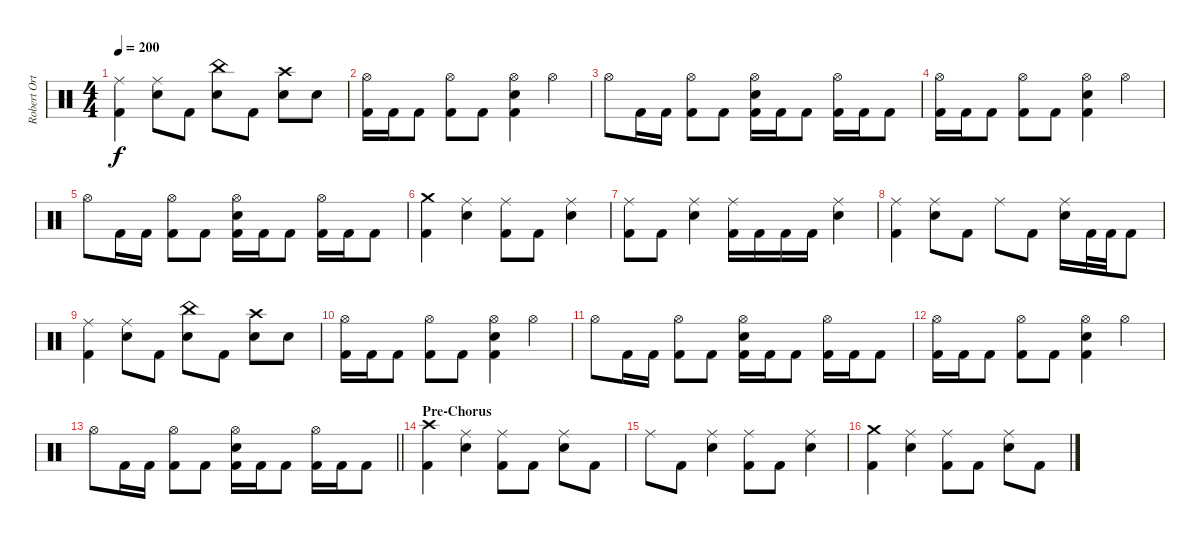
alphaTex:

\track ("Robert Ortiz - Drums" "Robert Ort") {instrument percussion}
\staff {score}
\articulation defaults
\ts (4 4)
\tempo 200
\clef neutral
\ks c
("Ride (middle)" "Kick (hit) 2").4{dy f} ("Ride (middle)" "Electric Snare (hit)").8 "Kick (hit) 2".8 ("China (hit)" "Electric Snare (hit)").8 "Kick (hit) 2".8 ("Crash high (hit)" "Electric Snare (hit)").8 "Electric Snare (hit)".8 |
("Hi-Hat (open)" "Kick (hit) 2").16 "Kick (hit) 2".16 "Kick (hit) 2".8 ("Hi-Hat (open)" "Kick (hit) 2").8 "Kick (hit) 2".8 ("Hi-Hat (open)" "Electric Snare (hit)" "Kick (hit) 2").4 "Hi-Hat (open)".4 |
"Hi-Hat (open)".8 "Kick (hit) 2".16 "Kick (hit) 2".16 ("Hi-Hat (open)" "Kick (hit) 2").8 "Kick (hit) 2".8 ("Hi-Hat (open)" "Electric Snare (hit)" "Kick (hit) 2").16 "Kick (hit) 2".16 "Kick (hit) 2".8 ("Hi-Hat (open)" "Kick (hit) 2").16 "Kick (hit) 2".16 "Kick (hit) 2".8 |
("Hi-Hat (open)" "Kick (hit) 2").16 "Kick (hit) 2".16 "Kick (hit) 2".8 ("Hi-Hat (open)" "Kick (hit) 2").8 "Kick (hit) 2".8 ("Hi-Hat (open)" "Electric Snare (hit)" "Kick (hit) 2").4 "Hi-Hat (open)".4 |
"Hi-Hat (open)".8 "Kick (hit) 2".16 "Kick (hit) 2".16 ("Hi-Hat (open)" "Kick (hit) 2").8 "Kick (hit) 2".8 ("Hi-Hat (open)" "Electric Snare (hit)" "Kick (hit) 2").16 "Kick (hit) 2".16 "Kick (hit) 2".8 ("Hi-Hat (open)" "Kick (hit) 2").16 "Kick (hit) 2".16 "Kick (hit) 2".8 |
("Crash medium (hit)" "Kick (hit) 2").4 ("Ride (middle)" "Electric Snare (hit)").4 ("Ride (middle)" "Kick (hit) 2").8 "Kick (hit) 2".8 ("Ride (middle)" "Electric Snare (hit)").4 |
("Ride (middle)" "Kick (hit) 2").8 "Kick (hit) 2".8 ("Ride (middle)" "Electric Snare (hit)").4 ("Ride (middle)" "Kick (hit) 2").16 "Kick (hit) 2".16 "Kick (hit) 2".16 "Kick (hit) 2".16 ("Ride (middle)" "Electric Snare (hit)").4 |
("Ride (middle)" "Kick (hit) 2").4 ("Ride (middle)" "Electric Snare (hit)").8 "Kick (hit) 2".8 "Ride (middle)".8 "Kick (hit) 2".8 ("Ride (middle)" "Electric Snare (hit)").16 "Kick (hit) 2".32 "Kick (hit) 2".32 "Kick (hit) 2".8 |
("Ride (middle)" "Kick (hit) 2").4 ("Ride (middle)" "Electric Snare (hit)").8 "Kick (hit) 2".8 ("China (hit)" "Electric Snare (hit)").8 "Kick (hit) 2".8 ("Crash high (hit)" "Electric Snare (hit)").8 "Electric Snare (hit)".8 |
("Hi-Hat (open)" "Kick (hit) 2").16 "Kick (hit) 2".16 "Kick (hit) 2".8 ("Hi-Hat (open)" "Kick (hit) 2").8 "Kick (hit) 2".8 ("Hi-Hat (open)" "Electric Snare (hit)" "Kick (hit) 2").4 "Hi-Hat (open)".4 |
"Hi-Hat (open)".8 "Kick (hit) 2".16 "Kick (hit) 2".16 ("Hi-Hat (open)" "Kick (hit) 2").8 "Kick (hit) 2".8 ("Hi-Hat (open)" "Electric Snare (hit)" "Kick (hit) 2").16 "Kick (hit) 2".16 "Kick (hit) 2".8 ("Hi-Hat (open)" "Kick (hit) 2").16 "Kick (hit) 2".16 "Kick (hit) 2".8 |
("Hi-Hat (open)" "Kick (hit) 2").16 "Kick (hit) 2".16 "Kick (hit) 2".8 ("Hi-Hat (open)" "Kick (hit) 2").8 "Kick (hit) 2".8 ("Hi-Hat (open)" "Electric Snare (hit)" "Kick (hit) 2").4 "Hi-Hat (open)".4 |
\barLineRight lightlight "Hi-Hat (open)".8 "Kick (hit) 2".16 "Kick (hit) 2".16
("Hi-Hat (open)" "Kick (hit) 2").8 "Kick (hit) 2".8 ("Hi-Hat (open)" "Electric Snare (hit)" "Kick (hit) 2").16 "Kick (hit) 2".16 "Kick (hit) 2".8 ("Hi-Hat (open)" "Kick (hit) 2").16 "Kick (hit) 2".16 "Kick (hit) 2".8 |
\section ("" "Pre-Chorus")
("Crash high (hit)" "Kick (hit) 2").4 ("Ride (middle)" "Electric Snare (hit)").4 ("Ride (middle)" "Kick (hit) 2").8 "Kick (hit) 2".8 ("Ride (middle)" "Electric Snare (hit)").8 "Kick (hit) 2".8 |
"Ride (middle)".8 "Kick (hit) 2".8 ("Ride (middle)" "Electric Snare (hit)").4 ("Ride (middle)" "Kick (hit) 2").8 "Kick (hit) 2".8 ("Ride (middle)" "Electric Snare (hit)").4 |
("Crash medium (hit)" "Kick (hit) 2").4 ("Ride (middle)" "Electric Snare (hit)").4 ("Ride (middle)" "Kick (hit) 2").8 "Kick (hit) 2".8 ("Ride (middle)" "Electric Snare (hit)").8 "Kick (hit) 2".8
